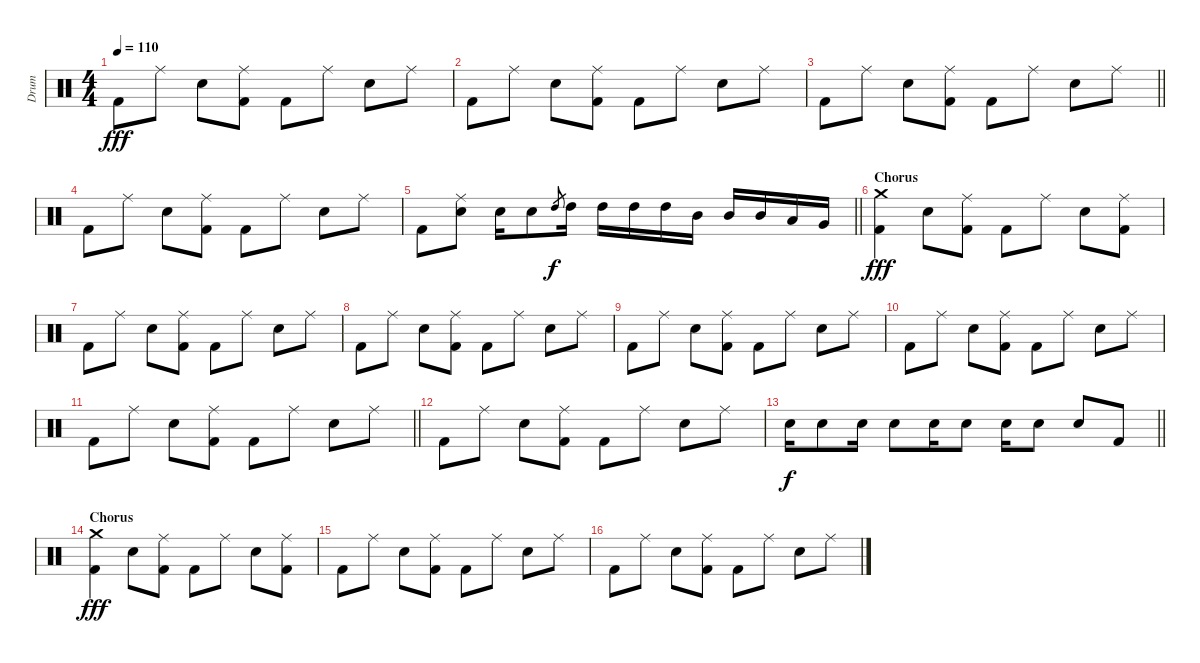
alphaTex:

\track ("Drum" "Drum") {instrument percussion}
\staff {score}
\articulation defaults
\ts (4 4)
\tempo 110
\clef neutral
\ks c "Kick (hit) 2".8{dy fff} "Ride (middle)".8 "Electric Snare (hit)".8
("Ride (middle)" "Kick (hit) 2").8 "Kick (hit) 2".8 "Ride (middle)".8 "Electric Snare (hit)".8 "Ride (middle)".8 |
"Kick (hit) 2".8 "Ride (middle)".8 "Electric Snare (hit)".8 ("Ride (middle)" "Kick (hit) 2").8 "Kick (hit) 2".8 "Ride (middle)".8 "Electric Snare (hit)".8 "Ride (middle)".8 |
\barLineRight lightlight "Kick (hit) 2".8 "Ride (middle)".8 "Electric Snare (hit)".8
("Ride (middle)" "Kick (hit) 2").8 "Kick (hit) 2".8 "Ride (middle)".8 "Electric Snare (hit)".8 "Ride (middle)".8 |
"Kick (hit) 2".8 "Ride (middle)".8 "Electric Snare (hit)".8 ("Ride (middle)" "Kick (hit) 2").8 "Kick (hit) 2".8 "Ride (middle)".8 "Electric Snare (hit)".8 "Ride (middle)".8 |
\barLineRight lightlight "Kick (hit) 2".8
("Ride (middle)" "Electric Snare (hit)").8 "Electric Snare (hit)".16 "Electric Snare (hit)".8 "High Tom (hit)".8{gr dy f} "High Tom (hit)".16 "High Tom (hit)".16 "High Tom (hit)".16 "High Tom (hit)".16 "Mid Tom (hit)".16 "Mid Tom (hit)".16 "Mid Tom (hit)".16 "Low Tom (hit)".16 "Very Low Tom (hit)".16 |
\section ("" "Chorus")
("Crash medium (hit)" "Kick (hit) 2").4{dy fff} "Electric Snare (hit)".8 ("Ride (middle)" "Kick (hit) 2").8 "Kick (hit) 2".8 "Ride (middle)".8 "Electric Snare (hit)".8 ("Ride (middle)" "Kick (hit) 2").8 |
"Kick (hit) 2".8 "Ride (middle)".8 "Electric Snare (hit)".8 ("Ride (middle)" "Kick (hit) 2").8 "Kick (hit) 2".8 "Ride (middle)".8 "Electric Snare (hit)".8 "Ride (middle)".8 |
"Kick (hit) 2".8 "Ride (middle)".8 "Electric Snare (hit)".8 ("Ride (middle)" "Kick (hit) 2").8 "Kick (hit) 2".8 "Ride (middle)".8 "Electric Snare (hit)".8 "Ride (middle)".8 |
"Kick (hit) 2".8 "Ride (middle)".8 "Electric Snare (hit)".8 ("Ride (middle)" "Kick (hit) 2").8 "Kick (hit) 2".8 "Ride (middle)".8 "Electric Snare (hit)".8 "Ride (middle)".8 |
"Kick (hit) 2".8 "Ride (middle)".8 "Electric Snare (hit)".8 ("Ride (middle)" "Kick (hit) 2").8 "Kick (hit) 2".8 "Ride (middle)".8 "Electric Snare (hit)".8 "Ride (middle)".8 |
\barLineRight lightlight "Kick (hit) 2".8 "Ride (middle)".8 "Electric Snare (hit)".8
("Ride (middle)" "Kick (hit) 2").8 "Kick (hit) 2".8 "Ride (middle)".8 "Electric Snare (hit)".8 "Ride (middle)".8 |
"Kick (hit) 2".8 "Ride (middle)".8 "Electric Snare (hit)".8 ("Ride (middle)" "Kick (hit) 2").8 "Kick (hit) 2".8 "Ride (middle)".8 "Electric Snare (hit)".8 "Ride (middle)".8 |
\barLineRight lightlight "Electric Snare (hit)".16{dy f} "Electric Snare (hit)".8 "Electric Snare (hit)".16 "Electric Snare (hit)".8 "Electric Snare (hit)".16 "Electric Snare (hit)".8 "Electric Snare (hit)".16 "Electric Snare (hit)".8 "Electric Snare (hit)".8 "Kick (hit) 2".8
|
\section ("" "Chorus")
("Crash medium (hit)" "Kick (hit) 2").4{dy fff} "Electric Snare (hit)".8 ("Ride (middle)" "Kick (hit) 2").8 "Kick (hit) 2".8 "Ride (middle)".8 "Electric Snare (hit)".8 ("Ride (middle)" "Kick (hit) 2").8 |
"Kick (hit) 2".8 "Ride (middle)".8 "Electric Snare (hit)".8 ("Ride (middle)" "Kick (hit) 2").8 "Kick (hit) 2".8 "Ride (middle)".8 "Electric Snare (hit)".8 "Ride (middle)".8 |
"Kick (hit) 2".8 "Ride (middle)".8 "Electric Snare (hit)".8 ("Ride (middle)" "Kick (hit) 2").8 "Kick (hit) 2".8 "Ride (middle)".8 "Electric Snare (hit)".8 "Ride (middle)".8
